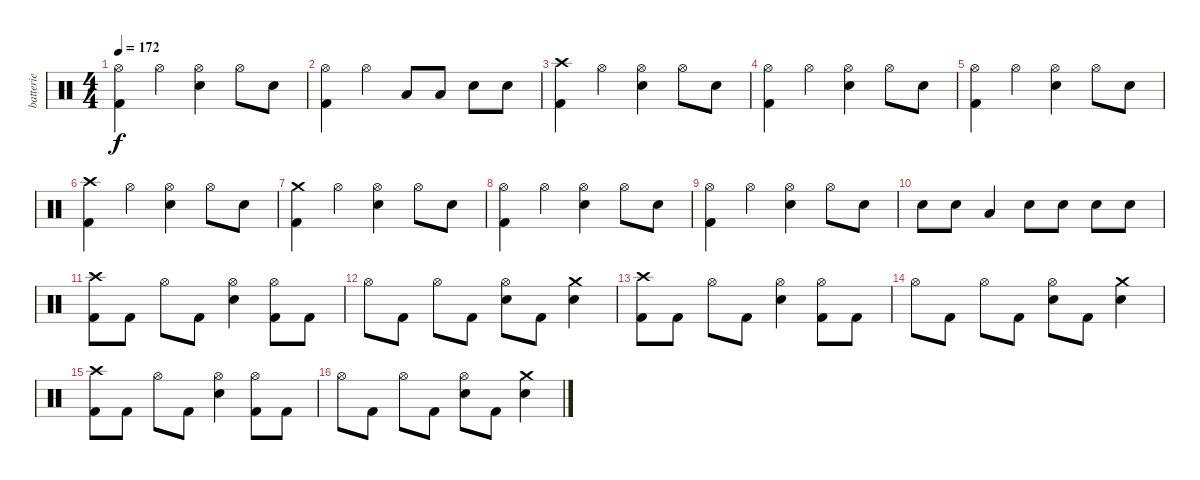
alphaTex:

\track ("batterie" "batterie") {instrument percussion}
\staff {score}
\articulation defaults
\ts (4 4)
\tempo 172
\clef neutral
\ks c
("Hi-Hat (open)" "Kick (hit) 2").4{dy f} "Hi-Hat (open)".4 ("Electric Snare (hit)" "Hi-Hat (open)").4 "Hi-Hat (open)".8 "Electric Snare (hit)".8 |
("Hi-Hat (open)" "Kick (hit) 2").4 "Hi-Hat (open)".4 "Low Tom (hit)".8 "Low Tom (hit)".8 "Electric Snare (hit)".8 "Electric Snare (hit)".8 |
("Crash high (hit)" "Kick (hit) 2").4 "Hi-Hat (open)".4 ("Electric Snare (hit)" "Hi-Hat (open)").4 "Hi-Hat (open)".8 "Electric Snare (hit)".8 |
("Hi-Hat (open)" "Kick (hit) 2").4 "Hi-Hat (open)".4 ("Electric Snare (hit)" "Hi-Hat (open)").4 "Hi-Hat (open)".8 "Electric Snare (hit)".8 |
("Hi-Hat (open)" "Kick (hit) 2").4 "Hi-Hat (open)".4 ("Electric Snare (hit)" "Hi-Hat (open)").4 "Hi-Hat (open)".8 "Electric Snare (hit)".8 |
("Crash high (hit)" "Kick (hit) 2").4 "Hi-Hat (open)".4 ("Electric Snare (hit)" "Hi-Hat (open)").4 "Hi-Hat (open)".8 "Electric Snare (hit)".8 |
("Crash medium (hit)" "Kick (hit) 2").4 "Hi-Hat (open)".4 ("Electric Snare (hit)" "Hi-Hat (open)").4 "Hi-Hat (open)".8 "Electric Snare (hit)".8 |
("Hi-Hat (open)" "Kick (hit) 2").4 "Hi-Hat (open)".4 ("Electric Snare (hit)" "Hi-Hat (open)").4 "Hi-Hat (open)".8 "Electric Snare (hit)".8 |
("Hi-Hat (open)" "Kick (hit) 2").4 "Hi-Hat (open)".4 ("Electric Snare (hit)" "Hi-Hat (open)").4 "Hi-Hat (open)".8 "Electric Snare (hit)".8 |
"Electric Snare (hit)".8 "Electric Snare (hit)".8 "Low Tom (hit)".4 "Electric Snare (hit)".8 "Electric Snare (hit)".8 "Electric Snare (hit)".8 "Electric Snare (hit)".8 |
("Crash high (hit)" "Kick (hit) 2").8 "Kick (hit) 2".8 "Hi-Hat (open)".8 "Kick (hit) 2".8 ("Hi-Hat (open)" "Electric Snare (hit)").4 ("Hi-Hat (open)" "Kick (hit) 2").8 "Kick (hit) 2".8 |
"Hi-Hat (open)".8 "Kick (hit) 2".8 "Hi-Hat (open)".8 "Kick (hit) 2".8 ("Hi-Hat (open)" "Electric Snare (hit)").8 "Kick (hit) 2".8 ("Electric Snare (hit)" "Crash medium (hit)").4 |
("Crash high (hit)" "Kick (hit) 2").8 "Kick (hit) 2".8 "Hi-Hat (open)".8 "Kick (hit) 2".8 ("Hi-Hat (open)" "Electric Snare (hit)").4 ("Hi-Hat (open)" "Kick (hit) 2").8 "Kick (hit) 2".8 |
"Hi-Hat (open)".8 "Kick (hit) 2".8 "Hi-Hat (open)".8 "Kick (hit) 2".8 ("Hi-Hat (open)" "Electric Snare (hit)").8 "Kick (hit) 2".8 ("Electric Snare (hit)" "Crash medium (hit)").4 |
("Crash high (hit)" "Kick (hit) 2").8 "Kick (hit) 2".8 "Hi-Hat (open)".8 "Kick (hit) 2".8 ("Hi-Hat (open)" "Electric Snare (hit)").4 ("Hi-Hat (open)" "Kick (hit) 2").8 "Kick (hit) 2".8 |
"Hi-Hat (open)".8 "Kick (hit) 2".8 "Hi-Hat (open)".8 "Kick (hit) 2".8 ("Hi-Hat (open)" "Electric Snare (hit)").8 "Kick (hit) 2".8 ("Electric Snare (hit)" "Crash medium (hit)").4
